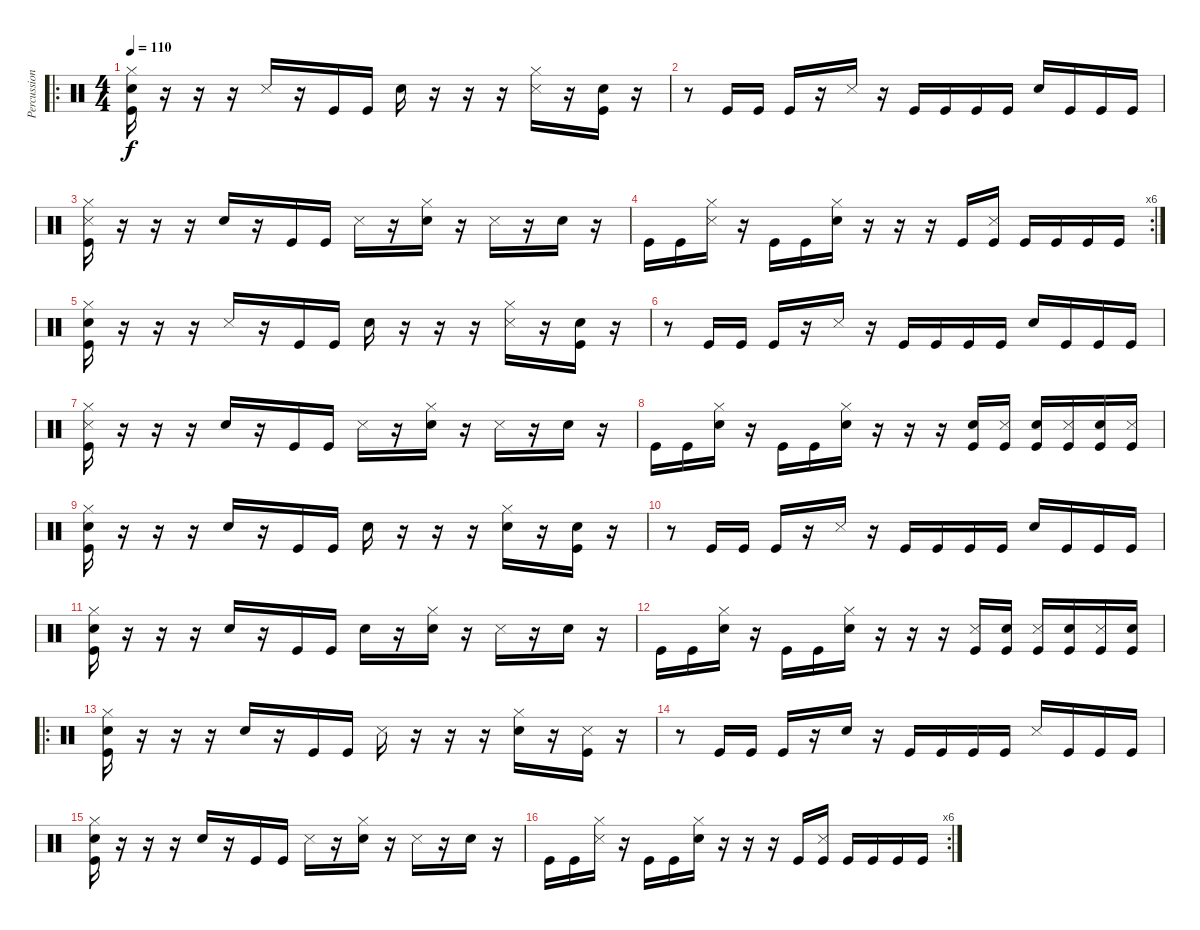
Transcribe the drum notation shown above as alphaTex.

\track ("Percussion" "Percussion") {instrument percussion}
\staff {score}
\articulation defaults
\ro
\ts (4 4)
\tempo 110
\clef neutral
\ks c
("Hi-Hat (closed)" "Snare (hit) 2" "Kick (hit)").16{dy f} r.16 r.16 r.16 "Snare (side stick) 3".16 r.16 "Kick (hit)".16 "Kick (hit)".16 "Snare (hit) 2".16 r.16 r.16 r.16 ("Hi-Hat (closed)" "Snare (side stick) 3").16 r.16 ("Snare (hit) 2" "Kick (hit)").16 r.16 |
r.8 "Kick (hit)".16 "Kick (hit)".16 "Kick (hit)".16 r.16 "Snare (side stick) 3".16 r.16 "Kick (hit)".16 "Kick (hit)".16 "Kick (hit)".16 "Kick (hit)".16 "Snare (hit) 2".16 "Kick (hit)".16 "Kick (hit)".16 "Kick (hit)".16 |
("Hi-Hat (closed)" "Snare (side stick) 3" "Kick (hit)").16 r.16 r.16 r.16 "Snare (hit) 2".16 r.16 "Kick (hit)".16 "Kick (hit)".16 "Snare (side stick) 3".16 r.16 ("Hi-Hat (closed)" "Snare (hit) 2").16 r.16 "Snare (side stick) 3".16 r.16 "Snare (hit) 2".16 r.16 |
\rc 6 "Kick (hit)".16 "Kick (hit)".16
("Hi-Hat (closed)" "Snare (side stick) 3").16 r.16 "Kick (hit)".16 "Kick (hit)".16 ("Hi-Hat (closed)" "Snare (hit) 2").16 r.16 r.16 r.16 "Kick (hit)".16 ("Snare (side stick) 3" "Kick (hit)").16 "Kick (hit)".16 "Kick (hit)".16 "Kick (hit)".16 "Kick (hit)".16 |
("Hi-Hat (closed)" "Snare (hit) 2" "Kick (hit)").16 r.16 r.16 r.16 "Snare (side stick) 3".16 r.16 "Kick (hit)".16 "Kick (hit)".16 "Snare (hit) 2".16 r.16 r.16 r.16 ("Hi-Hat (closed)" "Snare (side stick) 3").16 r.16 ("Snare (hit) 2" "Kick (hit)").16 r.16 |
r.8 "Kick (hit)".16 "Kick (hit)".16 "Kick (hit)".16 r.16 "Snare (side stick) 3".16 r.16 "Kick (hit)".16 "Kick (hit)".16 "Kick (hit)".16 "Kick (hit)".16 "Snare (hit) 2".16 "Kick (hit)".16 "Kick (hit)".16 "Kick (hit)".16 |
("Hi-Hat (closed)" "Snare (side stick) 3" "Kick (hit)").16 r.16 r.16 r.16 "Snare (hit) 2".16 r.16 "Kick (hit)".16 "Kick (hit)".16 "Snare (side stick) 3".16 r.16 ("Hi-Hat (closed)" "Snare (hit) 2").16 r.16 "Snare (side stick) 3".16 r.16 "Snare (hit) 2".16 r.16 |
"Kick (hit)".16 "Kick (hit)".16 ("Hi-Hat (closed)" "Snare (hit) 2").16 r.16 "Kick (hit)".16 "Kick (hit)".16 ("Hi-Hat (closed)" "Snare (hit) 2").16 r.16 r.16 r.16 ("Snare (hit) 2" "Kick (hit)").16 ("Snare (side stick) 3" "Kick (hit)").16 ("Snare (hit) 2" "Kick (hit)").16 ("Snare (side stick) 3" "Kick (hit)").16 ("Snare (hit) 2" "Kick (hit)").16 ("Snare (side stick) 3" "Kick (hit)").16 |
("Hi-Hat (closed)" "Snare (hit) 2" "Kick (hit)").16 r.16 r.16 r.16 "Snare (hit) 2".16 r.16 "Kick (hit)".16 "Kick (hit)".16 "Snare (hit) 2".16 r.16 r.16 r.16 ("Hi-Hat (closed)" "Snare (hit) 2").16 r.16 ("Snare (hit) 2" "Kick (hit)").16 r.16 |
r.8 "Kick (hit)".16 "Kick (hit)".16 "Kick (hit)".16 r.16 "Snare (side stick) 3".16 r.16 "Kick (hit)".16 "Kick (hit)".16 "Kick (hit)".16 "Kick (hit)".16 "Snare (hit) 2".16 "Kick (hit)".16 "Kick (hit)".16 "Kick (hit)".16 |
("Hi-Hat (closed)" "Snare (hit) 2" "Kick (hit)").16 r.16 r.16 r.16 "Snare (hit) 2".16 r.16 "Kick (hit)".16 "Kick (hit)".16 "Snare (hit) 2".16 r.16 ("Hi-Hat (closed)" "Snare (hit) 2").16 r.16 "Snare (side stick) 3".16 r.16 "Snare (hit) 2".16 r.16 |
"Kick (hit)".16 "Kick (hit)".16 ("Hi-Hat (closed)" "Snare (hit) 2").16 r.16 "Kick (hit)".16 "Kick (hit)".16 ("Hi-Hat (closed)" "Snare (hit) 2").16 r.16 r.16 r.16 ("Snare (side stick) 3" "Kick (hit)").16 ("Snare (hit) 2" "Kick (hit)").16 ("Snare (side stick) 3" "Kick (hit)").16 ("Snare (hit) 2" "Kick (hit)").16 ("Snare (side stick) 3" "Kick (hit)").16 ("Snare (hit) 2" "Kick (hit)").16 |
\ro
("Hi-Hat (closed)" "Snare (hit) 2" "Kick (hit)").16 r.16 r.16 r.16 "Snare (hit) 2".16 r.16 "Kick (hit)".16 "Kick (hit)".16 "Snare (side stick) 3".16 r.16 r.16 r.16 ("Hi-Hat (closed)" "Snare (hit) 2").16 r.16 ("Snare (side stick) 3" "Kick (hit)").16 r.16 |
r.8 "Kick (hit)".16 "Kick (hit)".16 "Kick (hit)".16 r.16 "Snare (hit) 2".16 r.16 "Kick (hit)".16 "Kick (hit)".16 "Kick (hit)".16 "Kick (hit)".16 "Snare (side stick) 3".16 "Kick (hit)".16 "Kick (hit)".16 "Kick (hit)".16 |
("Hi-Hat (closed)" "Snare (hit) 2" "Kick (hit)").16 r.16 r.16 r.16 "Snare (hit) 2".16 r.16 "Kick (hit)".16 "Kick (hit)".16 "Snare (side stick) 3".16 r.16 ("Hi-Hat (closed)" "Snare (hit) 2").16 r.16 "Snare (side stick) 3".16 r.16 "Snare (hit) 2".16 r.16 |
\rc 6 "Kick (hit)".16 "Kick (hit)".16
("Hi-Hat (closed)" "Snare (side stick) 3").16 r.16 "Kick (hit)".16 "Kick (hit)".16 ("Hi-Hat (closed)" "Snare (hit) 2").16 r.16 r.16 r.16 "Kick (hit)".16 ("Snare (side stick) 3" "Kick (hit)").16 "Kick (hit)".16 "Kick (hit)".16 "Kick (hit)".16 "Kick (hit)".16
